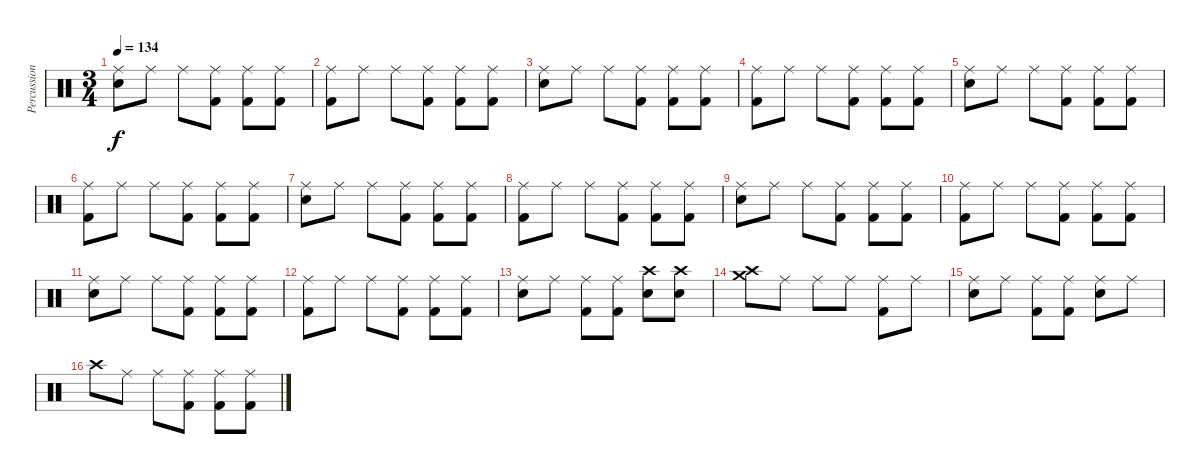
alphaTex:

\track ("Percussion" "Percussion") {instrument percussion}
\staff {score}
\articulation defaults
\ts (3 4)
\tempo 134
\clef neutral
\ks c
("Ride (middle)" "Snare (hit) 2").8{dy f} "Ride (middle)".8 "Ride (middle)".8 ("Ride (middle)" "Kick (hit) 2").8 ("Ride (middle)" "Kick (hit) 2").8 ("Ride (middle)" "Kick (hit) 2").8 |
("Ride (middle)" "Kick (hit) 2").8 "Ride (middle)".8 "Ride (middle)".8 ("Ride (middle)" "Kick (hit) 2").8 ("Ride (middle)" "Kick (hit) 2").8 ("Ride (middle)" "Kick (hit) 2").8 |
("Ride (middle)" "Snare (hit) 2").8 "Ride (middle)".8 "Ride (middle)".8 ("Ride (middle)" "Kick (hit) 2").8 ("Ride (middle)" "Kick (hit) 2").8 ("Ride (middle)" "Kick (hit) 2").8 |
("Ride (middle)" "Kick (hit) 2").8 "Ride (middle)".8 "Ride (middle)".8 ("Ride (middle)" "Kick (hit) 2").8 ("Ride (middle)" "Kick (hit) 2").8 ("Ride (middle)" "Kick (hit) 2").8 |
("Ride (middle)" "Snare (hit) 2").8 "Ride (middle)".8 "Ride (middle)".8 ("Ride (middle)" "Kick (hit) 2").8 ("Ride (middle)" "Kick (hit) 2").8 ("Ride (middle)" "Kick (hit) 2").8 |
("Ride (middle)" "Kick (hit) 2").8 "Ride (middle)".8 "Ride (middle)".8 ("Ride (middle)" "Kick (hit) 2").8 ("Ride (middle)" "Kick (hit) 2").8 ("Ride (middle)" "Kick (hit) 2").8 |
("Ride (middle)" "Snare (hit) 2").8 "Ride (middle)".8 "Ride (middle)".8 ("Ride (middle)" "Kick (hit) 2").8 ("Ride (middle)" "Kick (hit) 2").8 ("Ride (middle)" "Kick (hit) 2").8 |
("Ride (middle)" "Kick (hit) 2").8 "Ride (middle)".8 "Ride (middle)".8 ("Ride (middle)" "Kick (hit) 2").8 ("Ride (middle)" "Kick (hit) 2").8 ("Ride (middle)" "Kick (hit) 2").8 |
("Ride (middle)" "Snare (hit) 2").8 "Ride (middle)".8 "Ride (middle)".8 ("Ride (middle)" "Kick (hit) 2").8 ("Ride (middle)" "Kick (hit) 2").8 ("Ride (middle)" "Kick (hit) 2").8 |
("Ride (middle)" "Kick (hit) 2").8 "Ride (middle)".8 "Ride (middle)".8 ("Ride (middle)" "Kick (hit) 2").8 ("Ride (middle)" "Kick (hit) 2").8 ("Ride (middle)" "Kick (hit) 2").8 |
("Ride (middle)" "Snare (hit) 2").8 "Ride (middle)".8 "Ride (middle)".8 ("Ride (middle)" "Kick (hit) 2").8 ("Ride (middle)" "Kick (hit) 2").8 ("Ride (middle)" "Kick (hit) 2").8 |
("Ride (middle)" "Kick (hit) 2").8 "Ride (middle)".8 "Ride (middle)".8 ("Ride (middle)" "Kick (hit) 2").8 ("Ride (middle)" "Kick (hit) 2").8 ("Ride (middle)" "Kick (hit) 2").8 |
("Ride (middle)" "Snare (hit) 2").8 "Ride (middle)".8 ("Ride (middle)" "Kick (hit) 2").8 ("Ride (middle)" "Kick (hit) 2").8 ("Crash high (hit)" "Snare (hit) 2").8 ("Crash high (hit)" "Snare (hit) 2").8 |
("Crash high (hit)" "Crash medium (hit)").8 "Ride (middle)".8 "Ride (middle)".8 "Ride (middle)".8 ("Ride (middle)" "Kick (hit) 2").8 "Ride (middle)".8 |
("Ride (middle)" "Snare (hit) 2").8 "Ride (middle)".8 ("Ride (middle)" "Kick (hit) 2").8 ("Ride (middle)" "Kick (hit) 2").8 ("Ride (middle)" "Snare (hit) 2").8 "Ride (middle)".8 |
"Crash high (hit)".8 "Ride (middle)".8 "Ride (middle)".8 ("Ride (middle)" "Kick (hit) 2").8 ("Ride (middle)" "Kick (hit) 2").8 ("Ride (middle)" "Kick (hit) 2").8
